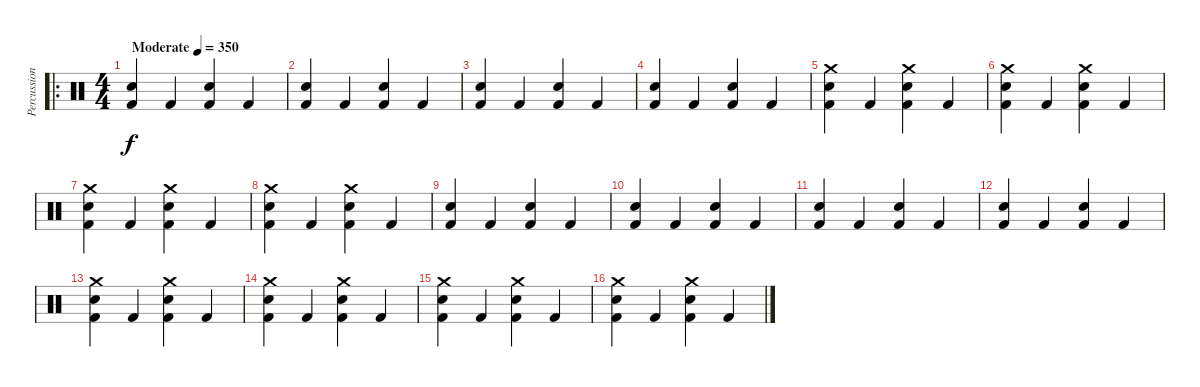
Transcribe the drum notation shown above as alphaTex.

\track ("Percussion" "Percussion") {instrument percussion}
\staff {score}
\articulation defaults
\ro
\ts (4 4)
\tempo (350 "Moderate")
\clef neutral
\ks c
("Snare (hit) 2" "Kick (hit) 2").4{dy f} "Kick (hit) 2".4 ("Snare (hit) 2" "Kick (hit) 2").4 "Kick (hit) 2".4 |
("Snare (hit) 2" "Kick (hit) 2").4 "Kick (hit) 2".4 ("Snare (hit) 2" "Kick (hit) 2").4 "Kick (hit) 2".4 |
("Snare (hit) 2" "Kick (hit) 2").4 "Kick (hit) 2".4 ("Snare (hit) 2" "Kick (hit) 2").4 "Kick (hit) 2".4 |
("Snare (hit) 2" "Kick (hit) 2").4 "Kick (hit) 2".4 ("Snare (hit) 2" "Kick (hit) 2").4 "Kick (hit) 2".4 |
("Snare (hit) 2" "Crash medium (hit)" "Kick (hit) 2").4 "Kick (hit) 2".4 ("Snare (hit) 2" "Crash medium (hit)" "Kick (hit) 2").4 "Kick (hit) 2".4 |
("Snare (hit) 2" "Crash medium (hit)" "Kick (hit) 2").4 "Kick (hit) 2".4 ("Snare (hit) 2" "Crash medium (hit)" "Kick (hit) 2").4 "Kick (hit) 2".4 |
("Snare (hit) 2" "Crash medium (hit)" "Kick (hit) 2").4 "Kick (hit) 2".4 ("Snare (hit) 2" "Crash medium (hit)" "Kick (hit) 2").4 "Kick (hit) 2".4 |
("Snare (hit) 2" "Crash medium (hit)" "Kick (hit) 2").4 "Kick (hit) 2".4 ("Snare (hit) 2" "Crash medium (hit)" "Kick (hit) 2").4 "Kick (hit) 2".4 |
("Snare (hit) 2" "Kick (hit) 2").4 "Kick (hit) 2".4 ("Snare (hit) 2" "Kick (hit) 2").4 "Kick (hit) 2".4 |
("Snare (hit) 2" "Kick (hit) 2").4 "Kick (hit) 2".4 ("Snare (hit) 2" "Kick (hit) 2").4 "Kick (hit) 2".4 |
("Snare (hit) 2" "Kick (hit) 2").4 "Kick (hit) 2".4 ("Snare (hit) 2" "Kick (hit) 2").4 "Kick (hit) 2".4 |
("Snare (hit) 2" "Kick (hit) 2").4 "Kick (hit) 2".4 ("Snare (hit) 2" "Kick (hit) 2").4 "Kick (hit) 2".4 |
("Snare (hit) 2" "Crash medium (hit)" "Kick (hit) 2").4 "Kick (hit) 2".4 ("Snare (hit) 2" "Crash medium (hit)" "Kick (hit) 2").4 "Kick (hit) 2".4 |
("Snare (hit) 2" "Crash medium (hit)" "Kick (hit) 2").4 "Kick (hit) 2".4 ("Snare (hit) 2" "Crash medium (hit)" "Kick (hit) 2").4 "Kick (hit) 2".4 |
("Snare (hit) 2" "Crash medium (hit)" "Kick (hit) 2").4 "Kick (hit) 2".4 ("Snare (hit) 2" "Crash medium (hit)" "Kick (hit) 2").4 "Kick (hit) 2".4 |
("Snare (hit) 2" "Crash medium (hit)" "Kick (hit) 2").4 "Kick (hit) 2".4 ("Snare (hit) 2" "Crash medium (hit)" "Kick (hit) 2").4 "Kick (hit) 2".4
